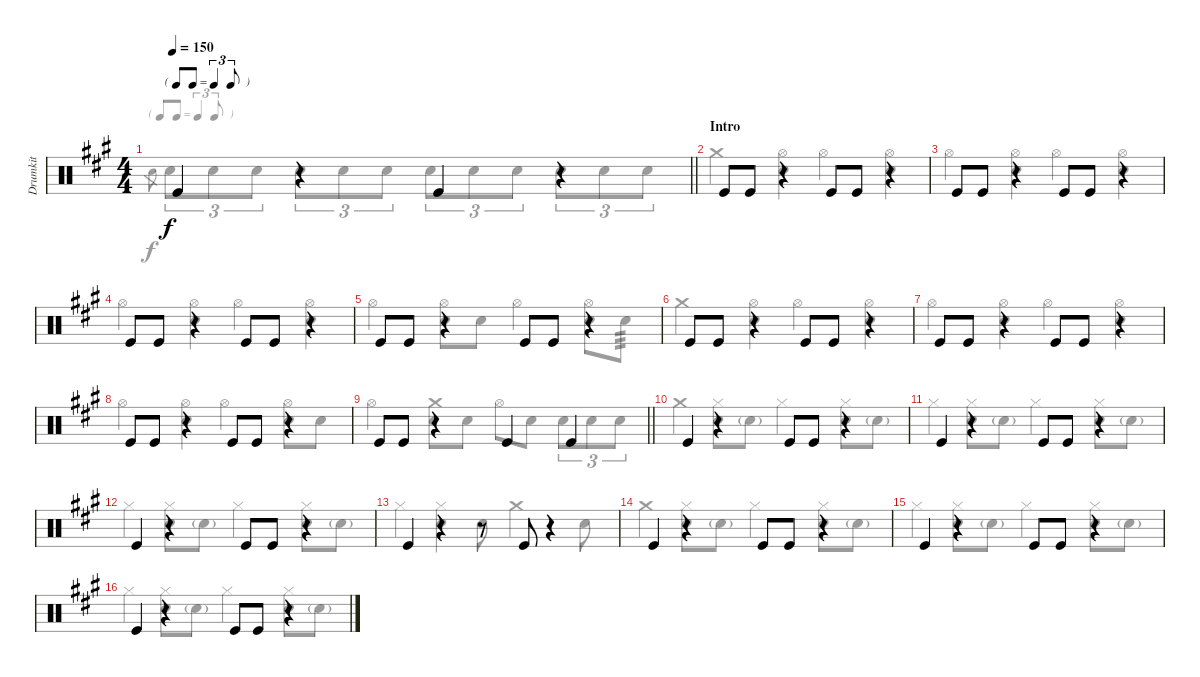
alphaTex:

\track ("Drumkit" "Drumkit") {instrument percussion}
\staff {score}
\articulation defaults
\voice
\ts (4 4)
\tf triplet8th
\tempo 150
\clef neutral
\barLineRight lightlight
\ks a "Kick (hit)".4{dy f}
r.4 "Kick (hit)".4 r.4 |
\section ("" "Intro")
"Kick (hit)".8 "Kick (hit)".8 r.4 "Kick (hit)".8 "Kick (hit)".8 r.4 |
"Kick (hit)".8 "Kick (hit)".8 r.4 "Kick (hit)".8 "Kick (hit)".8 r.4 |
"Kick (hit)".8 "Kick (hit)".8 r.4 "Kick (hit)".8 "Kick (hit)".8 r.4 |
"Kick (hit)".8 "Kick (hit)".8 r.4 "Kick (hit)".8 "Kick (hit)".8 r.4 |
"Kick (hit)".8 "Kick (hit)".8 r.4 "Kick (hit)".8 "Kick (hit)".8 r.4 |
"Kick (hit)".8 "Kick (hit)".8 r.4 "Kick (hit)".8 "Kick (hit)".8 r.4 |
"Kick (hit)".8 "Kick (hit)".8 r.4 "Kick (hit)".8 "Kick (hit)".8 r.4 |
\barLineRight lightlight "Kick (hit)".8 "Kick (hit)".8
r.4 "Kick (hit)".4 "Kick (hit)".4 |
\section ("" "")
"Kick (hit)".4 r.4 "Kick (hit)".8 "Kick (hit)".8 r.4 |
"Kick (hit)".4 r.4 "Kick (hit)".8 "Kick (hit)".8 r.4 |
"Kick (hit)".4 r.4 "Kick (hit)".8 "Kick (hit)".8 r.4 |
"Kick (hit)".4 r.4 r.8 "Kick (hit)".8 r.4 |
"Kick (hit)".4 r.4 "Kick (hit)".8 "Kick (hit)".8 r.4 |
"Kick (hit)".4 r.4 "Kick (hit)".8 "Kick (hit)".8 r.4 |
"Kick (hit)".4 r.4 "Kick (hit)".8 "Kick (hit)".8 r.4
\voice
\clef neutral
\ottava regular
\simile none
\barLineRight lightlight
\ks a "Snare (hit)".8{gr dy f} "Snare (hit) 2".8{tu (3 2)} "Snare (hit) 2".8{tu (3 2)} "Snare (hit) 2".8{tu (3 2)} "Snare (hit) 2".8{tu (3 2)} "Snare (hit) 2".8{tu (3 2)} "Snare (hit) 2".8{tu (3 2)} "Snare (hit) 2".8{tu (3 2)} "Snare (hit) 2".8{tu (3 2)} "Snare (hit) 2".8{tu (3 2)} "Snare (hit) 2".8{tu (3 2)} "Snare (hit) 2".8{tu (3 2)} "Snare (hit) 2".8{tu (3 2)}
|
"Crash medium (hit)".4 ("Hi-Hat (open)" "Snare (hit) 2").4 "Hi-Hat (open)".4 ("Hi-Hat (open)" "Snare (hit) 2").4 |
"Hi-Hat (open)".4 ("Hi-Hat (open)" "Snare (hit) 2").4 "Hi-Hat (open)".4 ("Hi-Hat (open)" "Snare (hit) 2").4 |
"Hi-Hat (open)".4 ("Hi-Hat (open)" "Snare (hit) 2").4 "Hi-Hat (open)".4 ("Hi-Hat (open)" "Snare (hit) 2").4 |
"Hi-Hat (open)".4 ("Hi-Hat (open)" "Snare (hit) 2").8 "Snare (hit) 2".8 "Hi-Hat (open)".4 ("Snare (hit) 2" "Hi-Hat (open)").8 "Snare (hit) 2".8{tp 3} |
"Crash medium (hit)".4 ("Hi-Hat (open)" "Snare (hit) 2").4 "Hi-Hat (open)".4 ("Hi-Hat (open)" "Snare (hit) 2").4 |
"Hi-Hat (open)".4 ("Hi-Hat (open)" "Snare (hit) 2").4 "Hi-Hat (open)".4 ("Hi-Hat (open)" "Snare (hit) 2").4 |
"Hi-Hat (open)".4 ("Hi-Hat (open)" "Snare (hit) 2").4 "Hi-Hat (open)".4 ("Hi-Hat (open)" "Snare (hit) 2").8 "Snare (hit) 2".8 |
\barLineRight lightlight "Hi-Hat (open)".4
("Crash medium (hit)" "Snare (hit) 2").8 "Snare (hit) 2".8 "Hi-Hat (open)".8 "Snare (hit) 2".8 "Snare (hit) 2".8{tu (3 2)} "Snare (hit) 2".8{tu (3 2)} "Snare (hit) 2".8{tu (3 2)} |
"Crash medium (hit)".4 ("Hi-Hat (closed)" "Snare (hit) 2").8 "Snare (hit) 2"{g}.8 "Hi-Hat (closed)".4 ("Hi-Hat (closed)" "Snare (hit) 2").8 "Snare (hit) 2"{g}.8 |
"Hi-Hat (closed)".4 ("Hi-Hat (closed)" "Snare (hit) 2").8 "Snare (hit) 2"{g}.8 "Hi-Hat (closed)".4 ("Hi-Hat (closed)" "Snare (hit) 2").8 "Snare (hit) 2"{g}.8 |
"Hi-Hat (closed)".4 ("Hi-Hat (closed)" "Snare (hit) 2").8 "Snare (hit) 2"{g}.8 "Hi-Hat (closed)".4 ("Hi-Hat (closed)" "Snare (hit) 2").8 "Snare (hit) 2"{g}.8 |
"Hi-Hat (closed)".4 ("Hi-Hat (closed)" "Snare (hit) 2").4 "Snare (hit) 2".8 "Crash medium (hit)".4 "Snare (hit) 2".8 |
"Crash medium (hit)".4 ("Hi-Hat (closed)" "Snare (hit) 2").8 "Snare (hit) 2"{g}.8 "Hi-Hat (closed)".4 ("Hi-Hat (closed)" "Snare (hit) 2").8 "Snare (hit) 2"{g}.8 |
"Hi-Hat (closed)".4 ("Hi-Hat (closed)" "Snare (hit) 2").8 "Snare (hit) 2"{g}.8 "Hi-Hat (closed)".4 ("Hi-Hat (closed)" "Snare (hit) 2").8 "Snare (hit) 2"{g}.8 |
"Hi-Hat (closed)".4 ("Hi-Hat (closed)" "Snare (hit) 2").8 "Snare (hit) 2"{g}.8 "Hi-Hat (closed)".4 ("Hi-Hat (closed)" "Snare (hit) 2").8 "Snare (hit) 2"{g}.8
